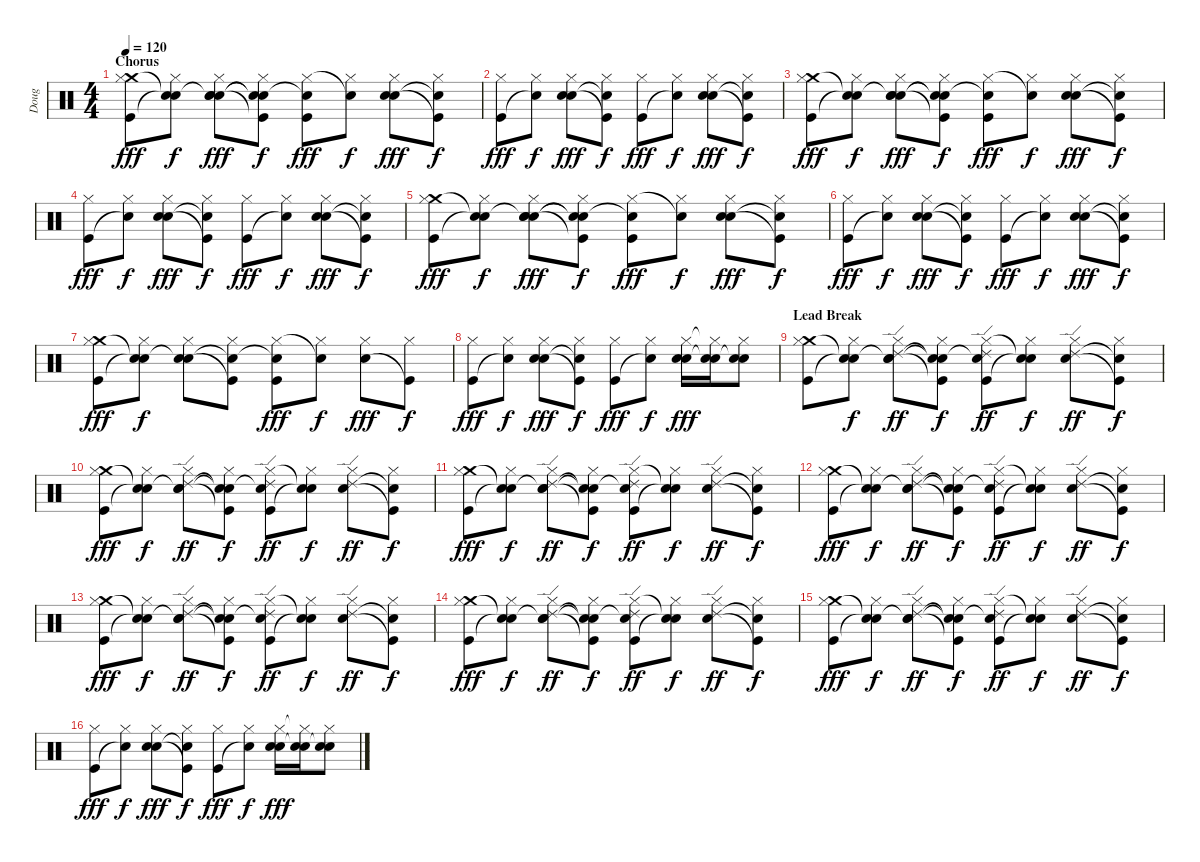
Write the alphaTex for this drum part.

\track ("Doug" "Doug") {instrument percussion}
\staff {score}
\articulation defaults
\ts (4 4)
\section ("" "Chorus")
\tempo 120
\clef neutral
\ks c
("Crash medium (hit)" "Hi-Hat (closed)" "Kick (hit)").8{dy fff} ("Snare (hit)"{t} "Hi-Hat (closed)" "Snare (hit)"{t}).8{dy f} ("Snare (hit)"{t} "Hi-Hat (closed)" "Snare (hit) 2" "Hand Clap (hit)").8{dy fff} ("Snare (hit)"{t} "Hi-Hat (closed)" "Kick (hit)"{t} "Snare (hit)"{t}).8{dy f} ("Snare (hit)"{t} "Hi-Hat (closed)" "Kick (hit)").8{dy fff} ("Hi-Hat (closed)" "Snare (hit)"{t}).8{dy f} ("Hi-Hat (closed)" "Snare (hit) 2" "Hand Clap (hit)").8{dy fff} ("Hi-Hat (closed)" "Kick (hit)"{t} "Snare (hit)"{t}).8{dy f} |
("Hi-Hat (closed)" "Kick (hit)").8{dy fff} ("Hi-Hat (closed)" "Snare (hit)"{t}).8{dy f} ("Hand Clap (hit)" "Hi-Hat (closed)" "Snare (hit) 2").8{dy fff} ("Snare (hit)"{t} "Hi-Hat (closed)" "Kick (hit)"{t}).8{dy f} ("Hi-Hat (closed)" "Kick (hit)").8{dy fff} ("Hi-Hat (closed)" "Snare (hit)"{t}).8{dy f} ("Hand Clap (hit)" "Hi-Hat (closed)" "Snare (hit) 2").8{dy fff} ("Snare (hit)"{t} "Hi-Hat (closed)" "Kick (hit)"{t}).8{dy f} |
("Crash medium (hit)" "Hi-Hat (closed)" "Kick (hit)").8{dy fff} ("Snare (hit)"{t} "Hi-Hat (closed)" "Snare (hit)"{t}).8{dy f} ("Snare (hit)"{t} "Hi-Hat (closed)" "Snare (hit) 2" "Hand Clap (hit)").8{dy fff} ("Snare (hit)"{t} "Hi-Hat (closed)" "Kick (hit)"{t} "Snare (hit)"{t}).8{dy f} ("Snare (hit)"{t} "Hi-Hat (closed)" "Kick (hit)").8{dy fff} ("Hi-Hat (closed)" "Snare (hit)"{t}).8{dy f} ("Hi-Hat (closed)" "Snare (hit) 2" "Hand Clap (hit)").8{dy fff} ("Hi-Hat (closed)" "Kick (hit)"{t} "Snare (hit)"{t}).8{dy f} |
("Hi-Hat (closed)" "Kick (hit)").8{dy fff} ("Hi-Hat (closed)" "Snare (hit)"{t}).8{dy f} ("Hand Clap (hit)" "Hi-Hat (closed)" "Snare (hit) 2").8{dy fff} ("Snare (hit)"{t} "Hi-Hat (closed)" "Kick (hit)"{t}).8{dy f} ("Hi-Hat (closed)" "Kick (hit)").8{dy fff} ("Hi-Hat (closed)" "Snare (hit)"{t}).8{dy f} ("Hand Clap (hit)" "Hi-Hat (closed)" "Snare (hit) 2").8{dy fff} ("Snare (hit)"{t} "Hi-Hat (closed)" "Kick (hit)"{t}).8{dy f} |
("Crash medium (hit)" "Hi-Hat (closed)" "Kick (hit)").8{dy fff} ("Snare (hit)"{t} "Hi-Hat (closed)" "Snare (hit)"{t}).8{dy f} ("Snare (hit)"{t} "Hi-Hat (closed)" "Snare (hit) 2" "Hand Clap (hit)").8{dy fff} ("Snare (hit)"{t} "Hi-Hat (closed)" "Kick (hit)"{t} "Snare (hit)"{t}).8{dy f} ("Snare (hit)"{t} "Hi-Hat (closed)" "Kick (hit)").8{dy fff} ("Hi-Hat (closed)" "Snare (hit)"{t}).8{dy f} ("Hi-Hat (closed)" "Snare (hit) 2" "Hand Clap (hit)").8{dy fff} ("Hi-Hat (closed)" "Kick (hit)"{t} "Snare (hit)"{t}).8{dy f} |
("Hi-Hat (closed)" "Kick (hit)").8{dy fff} ("Hi-Hat (closed)" "Snare (hit)"{t}).8{dy f} ("Hand Clap (hit)" "Hi-Hat (closed)" "Snare (hit) 2").8{dy fff} ("Snare (hit)"{t} "Hi-Hat (closed)" "Kick (hit)"{t}).8{dy f} ("Hi-Hat (closed)" "Kick (hit)").8{dy fff} ("Hi-Hat (closed)" "Snare (hit)"{t}).8{dy f} ("Hand Clap (hit)" "Hi-Hat (closed)" "Snare (hit) 2").8{dy fff} ("Snare (hit)"{t} "Hi-Hat (closed)" "Kick (hit)"{t}).8{dy f} |
("Crash medium (hit)" "Hi-Hat (closed)" "Kick (hit)").8{dy fff} ("Snare (hit)"{t} "Hi-Hat (closed)" "Snare (hit)"{t}).8{dy f} ("Snare (hit)"{t} "Hi-Hat (closed)" "Snare (hit) 2").8 ("Snare (hit)"{t} "Hi-Hat (closed)" "Kick (hit)"{t}).8 ("Snare (hit)"{t} "Hi-Hat (closed)" "Kick (hit)").8{dy fff} ("Hi-Hat (closed)" "Snare (hit)"{t}).8{dy f} ("Hi-Hat (closed)" "Snare (hit) 2").8{dy fff} ("Hi-Hat (closed)" "Kick (hit)"{t}).8{dy f} |
("Hi-Hat (closed)" "Kick (hit)").8{dy fff} ("Hi-Hat (closed)" "Snare (hit)"{t}).8{dy f} ("Hand Clap (hit)" "Hi-Hat (closed)" "Snare (hit) 2").8{dy fff} ("Snare (hit)"{t} "Hi-Hat (closed)" "Kick (hit)"{t}).8{dy f} ("Hi-Hat (closed)" "Kick (hit)").8{dy fff} ("Hi-Hat (closed)" "Snare (hit)"{t}).8{dy f} ("Hand Clap (hit)" "Hi-Hat (closed)" "Snare (hit) 2").16{dy fff} ("Snare (hit)"{t} "Hi-Hat (closed)"{t} "Snare (hit) 2").16 ("Snare (hit)"{t} "Hi-Hat (closed)" "Snare (hit) 2").8 |
\section ("" "Lead Break")
("Crash medium (hit)" "Hi-Hat (closed)" "Kick (hit)").8 ("Snare (hit)"{t} "Hi-Hat (closed)" "Snare (hit)"{t}).8{dy f} ("Snare (hit)"{t} "Hi-Hat (closed)" "Snare (hit) 2" "Ride (edge) 2").8{dy ff} ("Snare (hit)"{t} "Hi-Hat (closed)" "Kick (hit)"{t} "Snare (hit)"{t}).8{dy f} ("Snare (hit)"{t} "Hi-Hat (closed)" "Kick (hit)" "Ride (edge) 2").8{dy ff} ("Hi-Hat (closed)" "Snare (hit)"{t} "Snare (hit)"{t}).8{dy f} ("Hi-Hat (closed)" "Snare (hit) 2" "Ride (edge) 2").8{dy ff} ("Hi-Hat (closed)" "Kick (hit)"{t} "Snare (hit)"{t}).8{dy f} |
("Crash medium (hit)" "Hi-Hat (closed)" "Kick (hit)").8{dy fff} ("Snare (hit)"{t} "Hi-Hat (closed)" "Snare (hit)"{t}).8{dy f} ("Snare (hit)"{t} "Hi-Hat (closed)" "Snare (hit) 2" "Ride (edge) 2").8{dy ff} ("Snare (hit)"{t} "Hi-Hat (closed)" "Kick (hit)"{t} "Snare (hit)"{t}).8{dy f} ("Snare (hit)"{t} "Hi-Hat (closed)" "Kick (hit)" "Ride (edge) 2").8{dy ff} ("Hi-Hat (closed)" "Snare (hit)"{t} "Snare (hit)"{t}).8{dy f} ("Hi-Hat (closed)" "Snare (hit) 2" "Ride (edge) 2").8{dy ff} ("Hi-Hat (closed)" "Kick (hit)"{t} "Snare (hit)"{t}).8{dy f} |
("Crash medium (hit)" "Hi-Hat (closed)" "Kick (hit)").8{dy fff} ("Snare (hit)"{t} "Hi-Hat (closed)" "Snare (hit)"{t}).8{dy f} ("Snare (hit)"{t} "Hi-Hat (closed)" "Snare (hit) 2" "Ride (edge) 2").8{dy ff} ("Snare (hit)"{t} "Hi-Hat (closed)" "Kick (hit)"{t} "Snare (hit)"{t}).8{dy f} ("Snare (hit)"{t} "Hi-Hat (closed)" "Kick (hit)" "Ride (edge) 2").8{dy ff} ("Hi-Hat (closed)" "Snare (hit)"{t} "Snare (hit)"{t}).8{dy f} ("Hi-Hat (closed)" "Snare (hit) 2" "Ride (edge) 2").8{dy ff} ("Hi-Hat (closed)" "Kick (hit)"{t} "Snare (hit)"{t}).8{dy f} |
("Crash medium (hit)" "Hi-Hat (closed)" "Kick (hit)").8{dy fff} ("Snare (hit)"{t} "Hi-Hat (closed)" "Snare (hit)"{t}).8{dy f} ("Snare (hit)"{t} "Hi-Hat (closed)" "Snare (hit) 2" "Ride (edge) 2").8{dy ff} ("Snare (hit)"{t} "Hi-Hat (closed)" "Kick (hit)"{t} "Snare (hit)"{t}).8{dy f} ("Snare (hit)"{t} "Hi-Hat (closed)" "Kick (hit)" "Ride (edge) 2").8{dy ff} ("Hi-Hat (closed)" "Snare (hit)"{t} "Snare (hit)"{t}).8{dy f} ("Hi-Hat (closed)" "Snare (hit) 2" "Ride (edge) 2").8{dy ff} ("Hi-Hat (closed)" "Kick (hit)"{t} "Snare (hit)"{t}).8{dy f} |
("Crash medium (hit)" "Hi-Hat (closed)" "Kick (hit)").8{dy fff} ("Snare (hit)"{t} "Hi-Hat (closed)" "Snare (hit)"{t}).8{dy f} ("Snare (hit)"{t} "Hi-Hat (closed)" "Snare (hit) 2" "Ride (edge) 2").8{dy ff} ("Snare (hit)"{t} "Hi-Hat (closed)" "Kick (hit)"{t} "Snare (hit)"{t}).8{dy f} ("Snare (hit)"{t} "Hi-Hat (closed)" "Kick (hit)" "Ride (edge) 2").8{dy ff} ("Hi-Hat (closed)" "Snare (hit)"{t} "Snare (hit)"{t}).8{dy f} ("Hi-Hat (closed)" "Snare (hit) 2" "Ride (edge) 2").8{dy ff} ("Hi-Hat (closed)" "Kick (hit)"{t} "Snare (hit)"{t}).8{dy f} |
("Crash medium (hit)" "Hi-Hat (closed)" "Kick (hit)").8{dy fff} ("Snare (hit)"{t} "Hi-Hat (closed)" "Snare (hit)"{t}).8{dy f} ("Snare (hit)"{t} "Hi-Hat (closed)" "Snare (hit) 2" "Ride (edge) 2").8{dy ff} ("Snare (hit)"{t} "Hi-Hat (closed)" "Kick (hit)"{t} "Snare (hit)"{t}).8{dy f} ("Snare (hit)"{t} "Hi-Hat (closed)" "Kick (hit)" "Ride (edge) 2").8{dy ff} ("Hi-Hat (closed)" "Snare (hit)"{t} "Snare (hit)"{t}).8{dy f} ("Hi-Hat (closed)" "Snare (hit) 2" "Ride (edge) 2").8{dy ff} ("Hi-Hat (closed)" "Kick (hit)"{t} "Snare (hit)"{t}).8{dy f} |
("Crash medium (hit)" "Hi-Hat (closed)" "Kick (hit)").8{dy fff} ("Snare (hit)"{t} "Hi-Hat (closed)" "Snare (hit)"{t}).8{dy f} ("Snare (hit)"{t} "Hi-Hat (closed)" "Snare (hit) 2" "Ride (edge) 2").8{dy ff} ("Snare (hit)"{t} "Hi-Hat (closed)" "Kick (hit)"{t} "Snare (hit)"{t}).8{dy f} ("Snare (hit)"{t} "Hi-Hat (closed)" "Kick (hit)" "Ride (edge) 2").8{dy ff} ("Hi-Hat (closed)" "Snare (hit)"{t} "Snare (hit)"{t}).8{dy f} ("Hi-Hat (closed)" "Snare (hit) 2" "Ride (edge) 2").8{dy ff} ("Hi-Hat (closed)" "Kick (hit)"{t} "Snare (hit)"{t}).8{dy f} |
("Hi-Hat (closed)" "Kick (hit)").8{dy fff} ("Hi-Hat (closed)" "Snare (hit)"{t}).8{dy f} ("Hand Clap (hit)" "Hi-Hat (closed)" "Snare (hit) 2").8{dy fff} ("Snare (hit)"{t} "Hi-Hat (closed)" "Kick (hit)"{t}).8{dy f} ("Hi-Hat (closed)" "Kick (hit)").8{dy fff} ("Hi-Hat (closed)" "Snare (hit)"{t}).8{dy f} ("Hand Clap (hit)" "Hi-Hat (closed)" "Snare (hit) 2").16{dy fff} ("Snare (hit)"{t} "Hi-Hat (closed)"{t} "Snare (hit) 2").16 ("Snare (hit)"{t} "Hi-Hat (closed)" "Snare (hit) 2").8
